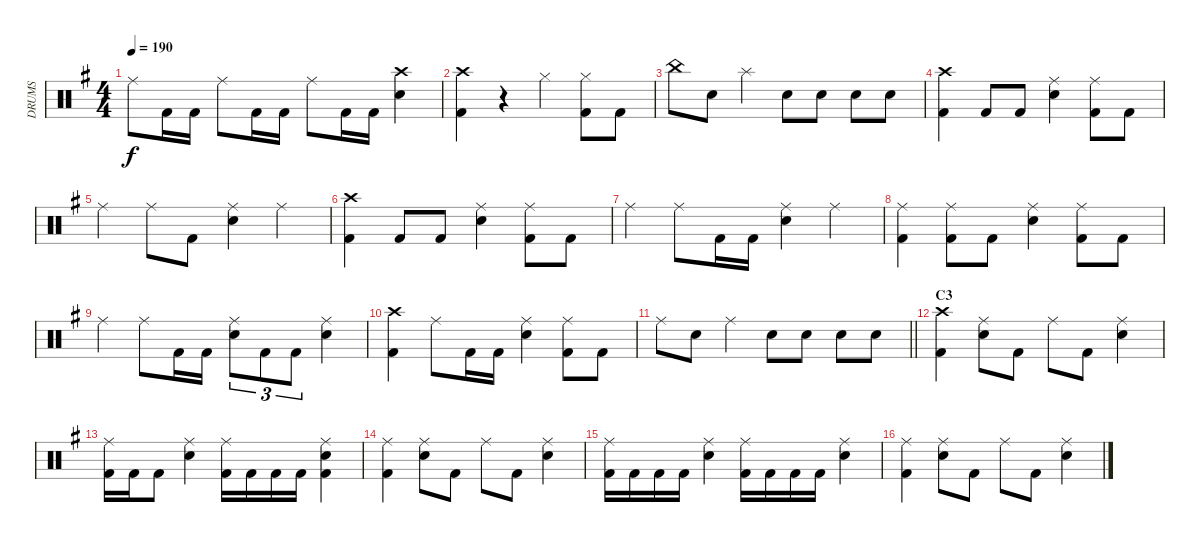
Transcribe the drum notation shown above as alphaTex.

\track ("DRUMS" "DRUMS") {instrument percussion}
\staff {score}
\articulation defaults
\ts (4 4)
\tempo 190
\clef neutral
\ks g "Ride (middle)".8{dy f} "Kick (hit) 2".16 "Kick (hit) 2".16 "Ride (middle)".8 "Kick (hit) 2".16 "Kick (hit) 2".16 "Ride (middle)".8 "Kick (hit) 2".16 "Kick (hit) 2".16
("Crash high (hit)" "Snare (hit) 2").4 |
("Crash high (hit)" "Kick (hit) 2").4 r.4 "Hi-Hat (closed)".4 ("Hi-Hat (closed)" "Kick (hit) 2").8 "Kick (hit) 2".8 |
"China (hit)".8 "Snare (hit) 2".8 "Splash (hit)".4 "Snare (hit) 2".8 "Snare (hit) 2".8 "Snare (hit) 2".8 "Snare (hit) 2".8 |
("Crash high (hit)" "Kick (hit) 2").4 "Kick (hit) 2".8 "Kick (hit) 2".8 ("Ride (middle)" "Snare (hit) 2").4 ("Ride (middle)" "Kick (hit) 2").8 "Kick (hit) 2".8 |
"Ride (middle)".4 "Ride (middle)".8 "Kick (hit) 2".8 ("Ride (middle)" "Snare (hit) 2").4 "Ride (middle)".4 |
("Crash high (hit)" "Kick (hit) 2").4 "Kick (hit) 2".8 "Kick (hit) 2".8 ("Ride (middle)" "Snare (hit) 2").4 ("Ride (middle)" "Kick (hit) 2").8 "Kick (hit) 2".8 |
"Ride (middle)".4 "Ride (middle)".8 "Kick (hit) 2".16 "Kick (hit) 2".16 ("Ride (middle)" "Snare (hit) 2").4 "Ride (middle)".4 |
("Ride (middle)" "Kick (hit) 2").4 ("Ride (middle)" "Kick (hit) 2").8 "Kick (hit) 2".8 ("Ride (middle)" "Snare (hit) 2").4 ("Ride (middle)" "Kick (hit) 2").8 "Kick (hit) 2".8 |
"Ride (middle)".4 "Ride (middle)".8 "Kick (hit) 2".16 "Kick (hit) 2".16 ("Ride (middle)" "Snare (hit) 2").8{tu (3 2)} "Kick (hit) 2".8{tu (3 2)} "Kick (hit) 2".8{tu (3 2)} ("Ride (middle)" "Snare (hit) 2").4 |
("Crash high (hit)" "Kick (hit) 2").4 "Ride (middle)".8 "Kick (hit) 2".16 "Kick (hit) 2".16 ("Ride (middle)" "Snare (hit) 2").4 ("Ride (middle)" "Kick (hit) 2").8 "Kick (hit) 2".8 |
\barLineRight lightlight "Ride (middle)".8 "Snare (hit) 2".8 "Ride (middle)".4 "Snare (hit) 2".8 "Snare (hit) 2".8 "Snare (hit) 2".8 "Snare (hit) 2".8
|
\section ("" "C3")
("Crash high (hit)" "Kick (hit) 2").4 ("Ride (middle)" "Snare (hit) 2").8 "Kick (hit) 2".8 "Ride (middle)".8 "Kick (hit) 2".8 ("Ride (middle)" "Snare (hit) 2").4 |
("Ride (middle)" "Kick (hit) 2").16 "Kick (hit) 2".16 "Kick (hit) 2".8 ("Ride (middle)" "Snare (hit) 2").4 ("Ride (middle)" "Kick (hit) 2").16 "Kick (hit) 2".16 "Kick (hit) 2".16 "Kick (hit) 2".16 ("Ride (middle)" "Snare (hit) 2" "Kick (hit) 2").4 |
("Ride (middle)" "Kick (hit) 2").4 ("Ride (middle)" "Snare (hit) 2").8 "Kick (hit) 2".8 "Ride (middle)".8 "Kick (hit) 2".8 ("Ride (middle)" "Snare (hit) 2").4 |
("Ride (middle)" "Kick (hit) 2").16 "Kick (hit) 2".16 "Kick (hit) 2".16 "Kick (hit) 2".16 ("Ride (middle)" "Snare (hit) 2").4 ("Ride (middle)" "Kick (hit) 2").16 "Kick (hit) 2".16 "Kick (hit) 2".16 "Kick (hit) 2".16 ("Ride (middle)" "Snare (hit) 2").4 |
("Ride (middle)" "Kick (hit) 2").4 ("Ride (middle)" "Snare (hit) 2").8 "Kick (hit) 2".8 "Ride (middle)".8 "Kick (hit) 2".8 ("Ride (middle)" "Snare (hit) 2").4
